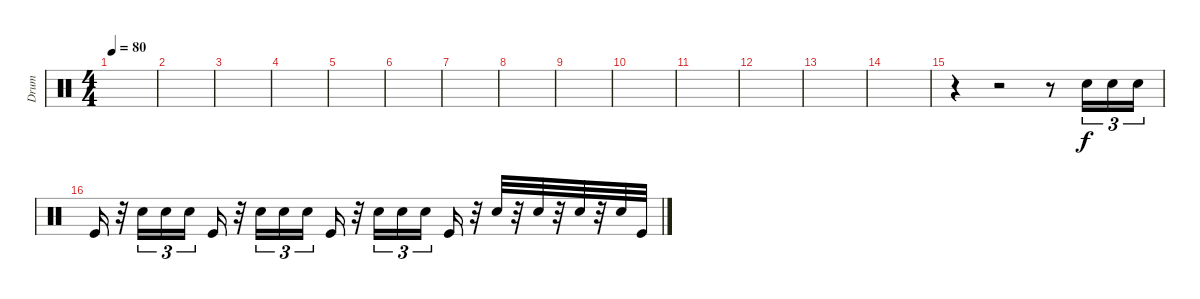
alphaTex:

\track ("Drum" "Drum") {instrument percussion}
\staff {score}
\articulation defaults
\ts (4 4)
\tempo 80
\clef neutral
\ks c
|
|
|
|
|
|
|
|
|
|
|
|
|
|
r.4 r.2 r.8 "Snare (hit) 2".16{tu (3 2)} "Snare (hit) 2".16{tu (3 2)} "Snare (hit) 2".16{tu (3 2)} |
"Kick (hit)".16 r.32 "Snare (hit) 2".16{tu (3 2)} "Snare (hit) 2".16{tu (3 2)} "Snare (hit) 2".16{tu (3 2)} "Kick (hit)".16 r.32 "Snare (hit) 2".16{tu (3 2)} "Snare (hit) 2".16{tu (3 2)} "Snare (hit) 2".16{tu (3 2)} "Kick (hit)".16 r.32 "Snare (hit) 2".16{tu (3 2)} "Snare (hit) 2".16{tu (3 2)} "Snare (hit) 2".16{tu (3 2)} "Kick (hit)".16 r.32 "Snare (hit) 2".32 r.32 "Snare (hit) 2".32 r.32 "Snare (hit) 2".32 r.32 "Snare (hit) 2".32 "Kick (hit)".32
